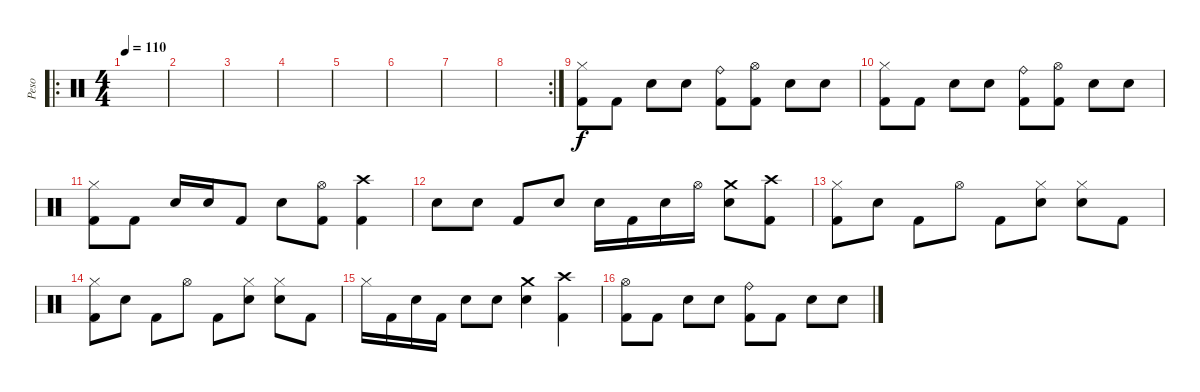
\track ("Peso" "Peso") {instrument percussion}
\staff {score}
\articulation defaults
\ro
\ts (4 4)
\tempo 110
\clef neutral
\ks c
|
|
|
|
|
|
|
\rc 2
|
("Hi-Hat (closed)" "Kick (hit) 2").8 "Kick (hit) 2".8 "Snare (hit) 2".8 "Snare (hit) 2".8 ("Ride (bell)" "Kick (hit) 2").8 ("Hi-Hat (open)" "Kick (hit) 2").8 "Snare (hit)"{x}.8 "Snare (hit)"{x}.8 |
("Hi-Hat (closed)" "Kick (hit) 2").8 "Kick (hit) 2".8 "Snare (hit) 2".8 "Snare (hit) 2".8 ("Ride (bell)" "Kick (hit) 2").8 ("Hi-Hat (open)" "Kick (hit) 2").8 "Snare (hit)"{x}.8 "Snare (hit)"{x}.8 |
("Hi-Hat (closed)" "Kick (hit) 2").8 "Kick (hit) 2".8 "Snare (hit) 2".16 "Snare (hit) 2".16 "Kick (hit) 2".8 "Snare (hit) 2".8 ("Hi-Hat (open)" "Kick (hit) 2").8 ("Crash high (hit)" "Kick (hit) 2").4 |
"Snare (hit) 2".8 "Snare (hit) 2".8 "Kick (hit) 2".8 "Snare (hit) 2".8 "Snare (hit) 2".16 "Kick (hit) 2".16 "Snare (hit) 2"{x}.16 "Hi-Hat (open)"{x}.16 ("Crash medium (hit)" "Snare (hit) 2").8 ("Crash high (hit)" "Kick (hit) 2").8 |
("Hi-Hat (closed)" "Kick (hit) 2").8 "Snare (hit) 2".8 "Kick (hit) 2".8 "Hi-Hat (open)".8 "Kick (hit) 2".8 ("Hi-Hat (closed)" "Snare (hit) 2").8 ("Hi-Hat (closed)" "Snare (hit) 2").8 "Kick (hit) 2".8 |
("Hi-Hat (closed)" "Kick (hit) 2").8 "Snare (hit) 2".8 "Kick (hit) 2".8 "Hi-Hat (open)".8 "Kick (hit) 2".8 ("Hi-Hat (closed)" "Snare (hit) 2").8 ("Hi-Hat (closed)" "Snare (hit) 2").8 "Kick (hit) 2".8 |
"Hi-Hat (closed)".16 "Kick (hit) 2".16 "Snare (hit) 2".16 "Kick (hit) 2".16 "Snare (hit) 2".8 "Snare (hit) 2".8 ("Crash medium (hit)" "Snare (hit) 2").4 ("Crash high (hit)" "Kick (hit) 2").4 |
("Hi-Hat (open)" "Kick (hit) 2").8 "Kick (hit) 2".8 "Snare (hit) 2".8 "Snare (hit) 2".8 ("Ride (bell)" "Kick (hit) 2").8 "Kick (hit) 2".8 "Snare (hit) 2".8 "Snare (hit) 2".8
